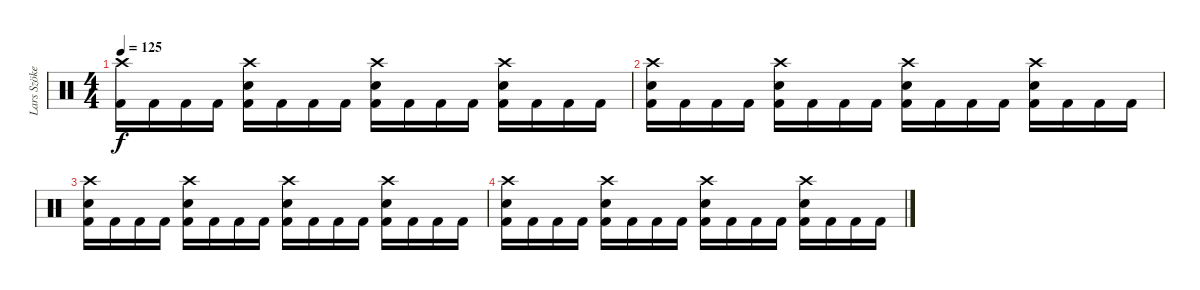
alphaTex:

\track ("Lars Szöke" "Lars Szöke") {instrument percussion}
\staff {score}
\articulation defaults
\ts (4 4)
\tempo 125
\clef neutral
\ks c
("Crash high (hit)" "Kick (hit) 2").16{dy f} "Kick (hit) 2".16 "Kick (hit) 2".16 "Kick (hit) 2".16 ("Crash high (hit)" "Snare (hit) 2" "Kick (hit) 2").16 "Kick (hit) 2".16 "Kick (hit) 2".16 "Kick (hit) 2".16 ("Crash high (hit)" "Snare (hit) 2" "Kick (hit) 2").16 "Kick (hit) 2".16 "Kick (hit) 2".16 "Kick (hit) 2".16 ("Crash high (hit)" "Snare (hit) 2" "Kick (hit) 2").16 "Kick (hit) 2".16 "Kick (hit) 2".16 "Kick (hit) 2".16 |
("Crash high (hit)" "Snare (hit) 2" "Kick (hit) 2").16 "Kick (hit) 2".16 "Kick (hit) 2".16 "Kick (hit) 2".16 ("Crash high (hit)" "Snare (hit) 2" "Kick (hit) 2").16 "Kick (hit) 2".16 "Kick (hit) 2".16 "Kick (hit) 2".16 ("Crash high (hit)" "Snare (hit) 2" "Kick (hit) 2").16 "Kick (hit) 2".16 "Kick (hit) 2".16 "Kick (hit) 2".16 ("Crash high (hit)" "Snare (hit) 2" "Kick (hit) 2").16 "Kick (hit) 2".16 "Kick (hit) 2".16 "Kick (hit) 2".16 |
("Crash high (hit)" "Snare (hit) 2" "Kick (hit) 2").16 "Kick (hit) 2".16 "Kick (hit) 2".16 "Kick (hit) 2".16 ("Crash high (hit)" "Snare (hit) 2" "Kick (hit) 2").16 "Kick (hit) 2".16 "Kick (hit) 2".16 "Kick (hit) 2".16 ("Crash high (hit)" "Snare (hit) 2" "Kick (hit) 2").16 "Kick (hit) 2".16 "Kick (hit) 2".16 "Kick (hit) 2".16 ("Crash high (hit)" "Snare (hit) 2" "Kick (hit) 2").16 "Kick (hit) 2".16 "Kick (hit) 2".16 "Kick (hit) 2".16 |
("Crash high (hit)" "Snare (hit) 2" "Kick (hit) 2").16 "Kick (hit) 2".16 "Kick (hit) 2".16 "Kick (hit) 2".16 ("Crash high (hit)" "Snare (hit) 2" "Kick (hit) 2").16 "Kick (hit) 2".16 "Kick (hit) 2".16 "Kick (hit) 2".16 ("Crash high (hit)" "Snare (hit) 2" "Kick (hit) 2").16 "Kick (hit) 2".16 "Kick (hit) 2".16 "Kick (hit) 2".16 ("Crash high (hit)" "Snare (hit) 2" "Kick (hit) 2").16 "Kick (hit) 2".16 "Kick (hit) 2".16 "Kick (hit) 2".16
